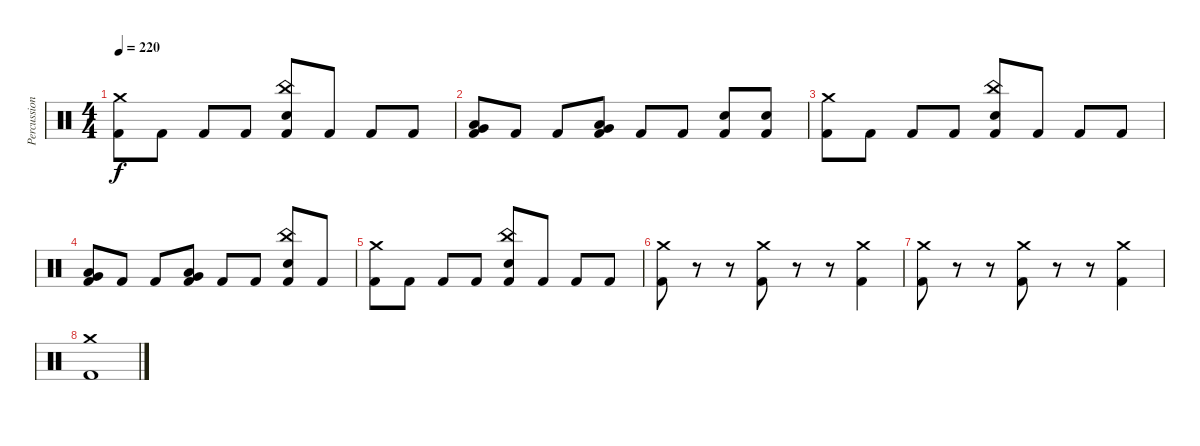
\track ("Percussion" "Percussion") {solo instrument percussion}
\staff {score}
\articulation defaults
\ts (4 4)
\tempo 220
\clef neutral
\ks c
("Crash medium (hit)" "Kick (hit) 2").8{dy f} "Kick (hit) 2".8 "Kick (hit) 2".8 "Kick (hit) 2".8 ("China (hit)" "Electric Snare (hit)" "Kick (hit) 2").8 "Kick (hit) 2".8 "Kick (hit) 2".8 "Kick (hit) 2".8 |
("Low Floor Tom (hit)" "Very Low Tom (hit)" "Kick (hit) 2").8 "Kick (hit) 2".8 "Kick (hit) 2".8 ("Very Low Tom (hit)" "Low Floor Tom (hit)" "Kick (hit) 2").8 "Kick (hit) 2".8 "Kick (hit) 2".8 ("Electric Snare (hit)" "Kick (hit) 2").8 ("Electric Snare (hit)" "Kick (hit) 2").8 |
("Crash medium (hit)" "Kick (hit) 2").8 "Kick (hit) 2".8 "Kick (hit) 2".8 "Kick (hit) 2".8 ("China (hit)" "Electric Snare (hit)" "Kick (hit) 2").8 "Kick (hit) 2".8 "Kick (hit) 2".8 "Kick (hit) 2".8 |
("Low Floor Tom (hit)" "Very Low Tom (hit)" "Kick (hit) 2").8 "Kick (hit) 2".8 "Kick (hit) 2".8 ("Very Low Tom (hit)" "Low Floor Tom (hit)" "Kick (hit) 2").8 "Kick (hit) 2".8 "Kick (hit) 2".8 ("China (hit)" "Electric Snare (hit)" "Kick (hit) 2").8 "Kick (hit) 2".8 |
("Crash medium (hit)" "Kick (hit) 2").8 "Kick (hit) 2".8 "Kick (hit) 2".8 "Kick (hit) 2".8 ("China (hit)" "Electric Snare (hit)" "Kick (hit) 2").8 "Kick (hit) 2".8 "Kick (hit) 2".8 "Kick (hit) 2".8 |
("Crash medium (hit)" "Kick (hit) 2").8 r.8 r.8 ("Crash medium (hit)" "Kick (hit) 2").8 r.8 r.8 ("Crash medium (hit)" "Kick (hit) 2").4 |
("Crash medium (hit)" "Kick (hit) 2").8 r.8 r.8 ("Crash medium (hit)" "Kick (hit) 2").8 r.8 r.8 ("Crash medium (hit)" "Kick (hit) 2").4 |
("Crash medium (hit)" "Kick (hit) 2").1
